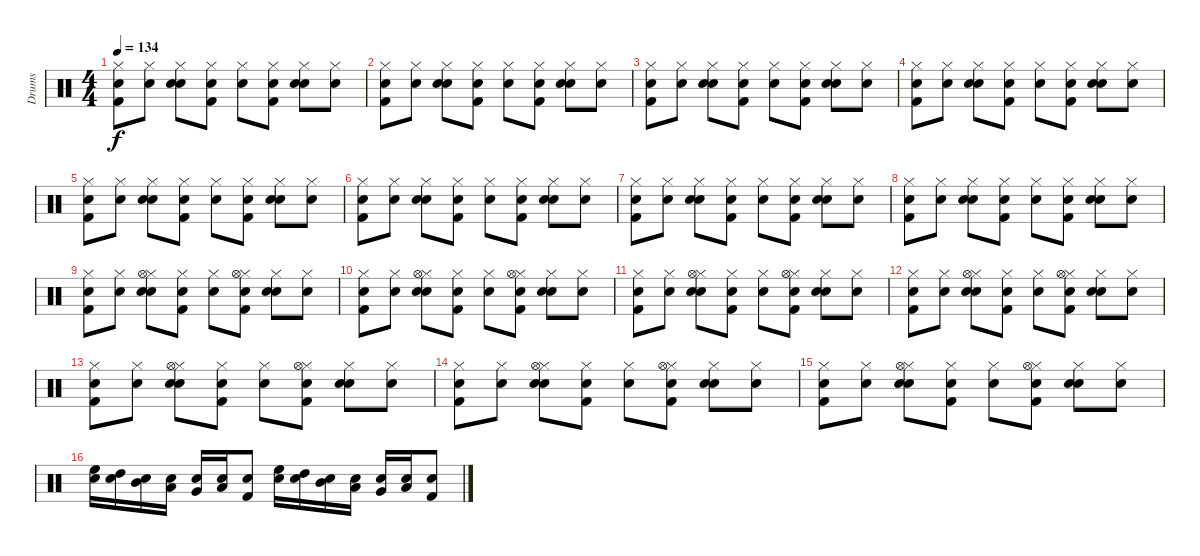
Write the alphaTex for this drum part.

\track ("Drums" "Drums") {instrument percussion}
\staff {score}
\articulation defaults
\ts (4 4)
\tempo 134
\clef neutral
\ks c
("Snare (hit)" "Kick (hit) 2" "Hi-Hat (closed)").8{dy f} ("Snare (hit)" "Hi-Hat (closed)").8 ("Snare (hit)" "Snare (hit) 2" "Hi-Hat (closed)").8 ("Snare (hit)" "Kick (hit) 2" "Hi-Hat (closed)").8 ("Snare (hit)" "Hi-Hat (closed)").8 ("Snare (hit)" "Kick (hit) 2" "Hi-Hat (closed)").8 ("Snare (hit)" "Snare (hit) 2" "Hi-Hat (closed)").8 ("Snare (hit)" "Hi-Hat (closed)").8 |
("Snare (hit)" "Kick (hit) 2" "Hi-Hat (closed)").8 ("Snare (hit)" "Hi-Hat (closed)").8 ("Snare (hit)" "Snare (hit) 2" "Hi-Hat (closed)").8 ("Snare (hit)" "Kick (hit) 2" "Hi-Hat (closed)").8 ("Snare (hit)" "Hi-Hat (closed)").8 ("Snare (hit)" "Kick (hit) 2" "Hi-Hat (closed)").8 ("Snare (hit)" "Snare (hit) 2" "Hi-Hat (closed)").8 ("Snare (hit)" "Hi-Hat (closed)").8 |
("Snare (hit)" "Kick (hit) 2" "Hi-Hat (closed)").8 ("Snare (hit)" "Hi-Hat (closed)").8 ("Snare (hit)" "Snare (hit) 2" "Hi-Hat (closed)").8 ("Snare (hit)" "Kick (hit) 2" "Hi-Hat (closed)").8 ("Snare (hit)" "Hi-Hat (closed)").8 ("Snare (hit)" "Kick (hit) 2" "Hi-Hat (closed)").8 ("Snare (hit)" "Snare (hit) 2" "Hi-Hat (closed)").8 ("Snare (hit)" "Hi-Hat (closed)").8 |
("Snare (hit)" "Kick (hit) 2" "Hi-Hat (closed)").8 ("Snare (hit)" "Hi-Hat (closed)").8 ("Snare (hit)" "Snare (hit) 2" "Hi-Hat (closed)").8 ("Snare (hit)" "Kick (hit) 2" "Hi-Hat (closed)").8 ("Snare (hit)" "Hi-Hat (closed)").8 ("Snare (hit)" "Kick (hit) 2" "Hi-Hat (closed)").8 ("Snare (hit)" "Snare (hit) 2" "Hi-Hat (closed)").8 ("Snare (hit)" "Hi-Hat (closed)").8 |
("Snare (hit)" "Kick (hit) 2" "Hi-Hat (closed)").8 ("Snare (hit)" "Hi-Hat (closed)").8 ("Snare (hit)" "Snare (hit) 2" "Hi-Hat (closed)").8 ("Snare (hit)" "Kick (hit) 2" "Hi-Hat (closed)").8 ("Snare (hit)" "Hi-Hat (closed)").8 ("Snare (hit)" "Kick (hit) 2" "Hi-Hat (closed)").8 ("Snare (hit)" "Snare (hit) 2" "Hi-Hat (closed)").8 ("Snare (hit)" "Hi-Hat (closed)").8 |
("Snare (hit)" "Kick (hit) 2" "Hi-Hat (closed)").8 ("Snare (hit)" "Hi-Hat (closed)").8 ("Snare (hit)" "Snare (hit) 2" "Hi-Hat (closed)").8 ("Snare (hit)" "Kick (hit) 2" "Hi-Hat (closed)").8 ("Snare (hit)" "Hi-Hat (closed)").8 ("Snare (hit)" "Kick (hit) 2" "Hi-Hat (closed)").8 ("Snare (hit)" "Snare (hit) 2" "Hi-Hat (closed)").8 ("Snare (hit)" "Hi-Hat (closed)").8 |
("Snare (hit)" "Kick (hit) 2" "Hi-Hat (closed)").8 ("Snare (hit)" "Hi-Hat (closed)").8 ("Snare (hit)" "Snare (hit) 2" "Hi-Hat (closed)").8 ("Snare (hit)" "Kick (hit) 2" "Hi-Hat (closed)").8 ("Snare (hit)" "Hi-Hat (closed)").8 ("Snare (hit)" "Kick (hit) 2" "Hi-Hat (closed)").8 ("Snare (hit)" "Snare (hit) 2" "Hi-Hat (closed)").8 ("Snare (hit)" "Hi-Hat (closed)").8 |
("Snare (hit)" "Kick (hit) 2" "Hi-Hat (closed)").8 ("Snare (hit)" "Hi-Hat (closed)").8 ("Snare (hit)" "Snare (hit) 2" "Hi-Hat (closed)").8 ("Snare (hit)" "Kick (hit) 2" "Hi-Hat (closed)").8 ("Snare (hit)" "Hi-Hat (closed)").8 ("Snare (hit)" "Kick (hit) 2" "Hi-Hat (closed)").8 ("Snare (hit)" "Snare (hit) 2" "Hi-Hat (closed)").8 ("Snare (hit)" "Hi-Hat (closed)").8 |
("Snare (hit)" "Kick (hit) 2" "Hi-Hat (closed)").8 ("Snare (hit)" "Hi-Hat (closed)").8 ("Snare (hit)" "Snare (hit) 2" "Hi-Hat (closed)" "Hi-Hat (open)").8 ("Snare (hit)" "Kick (hit) 2" "Hi-Hat (closed)").8 ("Snare (hit)" "Hi-Hat (closed)").8 ("Snare (hit)" "Kick (hit) 2" "Hi-Hat (closed)" "Hi-Hat (open)").8 ("Snare (hit)" "Snare (hit) 2" "Hi-Hat (closed)").8 ("Snare (hit)" "Hi-Hat (closed)").8 |
("Snare (hit)" "Kick (hit) 2" "Hi-Hat (closed)").8 ("Snare (hit)" "Hi-Hat (closed)").8 ("Snare (hit)" "Snare (hit) 2" "Hi-Hat (closed)" "Hi-Hat (open)").8 ("Snare (hit)" "Kick (hit) 2" "Hi-Hat (closed)").8 ("Snare (hit)" "Hi-Hat (closed)").8 ("Snare (hit)" "Kick (hit) 2" "Hi-Hat (closed)" "Hi-Hat (open)").8 ("Snare (hit)" "Snare (hit) 2" "Hi-Hat (closed)").8 ("Snare (hit)" "Hi-Hat (closed)").8 |
("Snare (hit)" "Kick (hit) 2" "Hi-Hat (closed)").8 ("Snare (hit)" "Hi-Hat (closed)").8 ("Snare (hit)" "Snare (hit) 2" "Hi-Hat (closed)" "Hi-Hat (open)").8 ("Snare (hit)" "Kick (hit) 2" "Hi-Hat (closed)").8 ("Snare (hit)" "Hi-Hat (closed)").8 ("Snare (hit)" "Kick (hit) 2" "Hi-Hat (closed)" "Hi-Hat (open)").8 ("Snare (hit)" "Snare (hit) 2" "Hi-Hat (closed)").8 ("Snare (hit)" "Hi-Hat (closed)").8 |
("Snare (hit)" "Kick (hit) 2" "Hi-Hat (closed)").8 ("Snare (hit)" "Hi-Hat (closed)").8 ("Snare (hit)" "Snare (hit) 2" "Hi-Hat (closed)" "Hi-Hat (open)").8 ("Snare (hit)" "Kick (hit) 2" "Hi-Hat (closed)").8 ("Snare (hit)" "Hi-Hat (closed)").8 ("Snare (hit)" "Kick (hit) 2" "Hi-Hat (closed)" "Hi-Hat (open)").8 ("Snare (hit)" "Snare (hit) 2" "Hi-Hat (closed)").8 ("Snare (hit)" "Hi-Hat (closed)").8 |
("Snare (hit)" "Kick (hit) 2" "Hi-Hat (closed)").8 ("Snare (hit)" "Hi-Hat (closed)").8 ("Snare (hit)" "Snare (hit) 2" "Hi-Hat (closed)" "Hi-Hat (open)").8 ("Snare (hit)" "Kick (hit) 2" "Hi-Hat (closed)").8 ("Snare (hit)" "Hi-Hat (closed)").8 ("Snare (hit)" "Kick (hit) 2" "Hi-Hat (closed)" "Hi-Hat (open)").8 ("Snare (hit)" "Snare (hit) 2" "Hi-Hat (closed)").8 ("Snare (hit)" "Hi-Hat (closed)").8 |
("Snare (hit)" "Kick (hit) 2" "Hi-Hat (closed)").8 ("Snare (hit)" "Hi-Hat (closed)").8 ("Snare (hit)" "Snare (hit) 2" "Hi-Hat (closed)" "Hi-Hat (open)").8 ("Snare (hit)" "Kick (hit) 2" "Hi-Hat (closed)").8 ("Snare (hit)" "Hi-Hat (closed)").8 ("Snare (hit)" "Kick (hit) 2" "Hi-Hat (closed)" "Hi-Hat (open)").8 ("Snare (hit)" "Snare (hit) 2" "Hi-Hat (closed)").8 ("Snare (hit)" "Hi-Hat (closed)").8 |
("Snare (hit)" "Kick (hit) 2" "Hi-Hat (closed)").8 ("Snare (hit)" "Hi-Hat (closed)").8 ("Snare (hit)" "Snare (hit) 2" "Hi-Hat (closed)" "Hi-Hat (open)").8 ("Snare (hit)" "Kick (hit) 2" "Hi-Hat (closed)").8 ("Snare (hit)" "Hi-Hat (closed)").8 ("Snare (hit)" "Kick (hit) 2" "Hi-Hat (closed)" "Hi-Hat (open)").8 ("Snare (hit)" "Snare (hit) 2" "Hi-Hat (closed)").8 ("Snare (hit)" "Hi-Hat (closed)").8 |
("Snare (hit)" "High Floor Tom (hit)").16 ("Snare (hit)" "High Tom (hit)").16 ("Snare (hit)" "Mid Tom (hit)").16 ("Snare (hit)" "Low Tom (hit)").16 ("Snare (hit)" "Very Low Tom (hit)").16 ("Snare (hit)" "Low Floor Tom (hit)").16 ("Snare (hit)" "Kick (hit) 2").8 ("Snare (hit)" "High Floor Tom (hit)").16 ("Snare (hit)" "High Tom (hit)").16 ("Snare (hit)" "Mid Tom (hit)").16 ("Snare (hit)" "Low Tom (hit)").16 ("Snare (hit)" "Very Low Tom (hit)").16 ("Snare (hit)" "Low Floor Tom (hit)").16 ("Snare (hit)" "Kick (hit) 2").8
